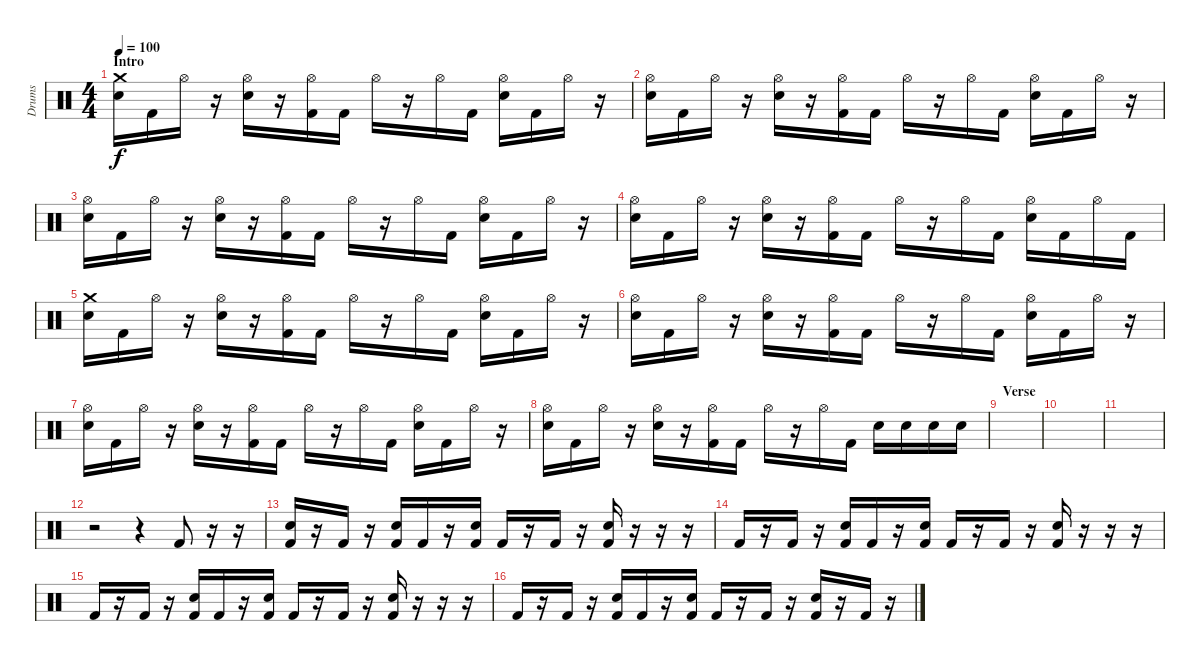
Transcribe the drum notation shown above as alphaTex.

\track ("Drums" "Drums") {instrument percussion}
\staff {score}
\articulation defaults
\ts (4 4)
\section ("" "Intro")
\tempo 100
\clef neutral
\ks c
("Crash medium (hit)" "Snare (hit) 2").16{dy f} "Kick (hit) 2".16 "Hi-Hat (open)".16 r.16 ("Hi-Hat (open)" "Snare (hit) 2").16 r.16 ("Hi-Hat (open)" "Kick (hit) 2").16 "Kick (hit) 2".16 "Hi-Hat (open)".16 r.16 "Hi-Hat (open)".16 "Kick (hit) 2".16 ("Hi-Hat (open)" "Snare (hit) 2").16 "Kick (hit) 2".16 "Hi-Hat (open)".16 r.16 |
("Hi-Hat (open)" "Snare (hit) 2").16 "Kick (hit) 2".16 "Hi-Hat (open)".16 r.16 ("Hi-Hat (open)" "Snare (hit) 2").16 r.16 ("Hi-Hat (open)" "Kick (hit) 2").16 "Kick (hit) 2".16 "Hi-Hat (open)".16 r.16 "Hi-Hat (open)".16 "Kick (hit) 2".16 ("Hi-Hat (open)" "Snare (hit) 2").16 "Kick (hit) 2".16 "Hi-Hat (open)".16 r.16 |
("Hi-Hat (open)" "Snare (hit) 2").16 "Kick (hit) 2".16 "Hi-Hat (open)".16 r.16 ("Hi-Hat (open)" "Snare (hit) 2").16 r.16 ("Hi-Hat (open)" "Kick (hit) 2").16 "Kick (hit) 2".16 "Hi-Hat (open)".16 r.16 "Hi-Hat (open)".16 "Kick (hit) 2".16 ("Hi-Hat (open)" "Snare (hit) 2").16 "Kick (hit) 2".16 "Hi-Hat (open)".16 r.16 |
("Hi-Hat (open)" "Snare (hit) 2").16 "Kick (hit) 2".16 "Hi-Hat (open)".16 r.16 ("Hi-Hat (open)" "Snare (hit) 2").16 r.16 ("Hi-Hat (open)" "Kick (hit) 2").16 "Kick (hit) 2".16 "Hi-Hat (open)".16 r.16 "Hi-Hat (open)".16 "Kick (hit) 2".16 ("Hi-Hat (open)" "Snare (hit) 2").16 "Kick (hit) 2".16 "Hi-Hat (open)".16 "Kick (hit) 2".16 |
("Crash medium (hit)" "Snare (hit) 2").16 "Kick (hit) 2".16 "Hi-Hat (open)".16 r.16 ("Hi-Hat (open)" "Snare (hit) 2").16 r.16 ("Hi-Hat (open)" "Kick (hit) 2").16 "Kick (hit) 2".16 "Hi-Hat (open)".16 r.16 "Hi-Hat (open)".16 "Kick (hit) 2".16 ("Hi-Hat (open)" "Snare (hit) 2").16 "Kick (hit) 2".16 "Hi-Hat (open)".16 r.16 |
("Hi-Hat (open)" "Snare (hit) 2").16 "Kick (hit) 2".16 "Hi-Hat (open)".16 r.16 ("Hi-Hat (open)" "Snare (hit) 2").16 r.16 ("Hi-Hat (open)" "Kick (hit) 2").16 "Kick (hit) 2".16 "Hi-Hat (open)".16 r.16 "Hi-Hat (open)".16 "Kick (hit) 2".16 ("Hi-Hat (open)" "Snare (hit) 2").16 "Kick (hit) 2".16 "Hi-Hat (open)".16 r.16 |
("Hi-Hat (open)" "Snare (hit) 2").16 "Kick (hit) 2".16 "Hi-Hat (open)".16 r.16 ("Hi-Hat (open)" "Snare (hit) 2").16 r.16 ("Hi-Hat (open)" "Kick (hit) 2").16 "Kick (hit) 2".16 "Hi-Hat (open)".16 r.16 "Hi-Hat (open)".16 "Kick (hit) 2".16 ("Hi-Hat (open)" "Snare (hit) 2").16 "Kick (hit) 2".16 "Hi-Hat (open)".16 r.16 |
("Hi-Hat (open)" "Snare (hit) 2").16 "Kick (hit) 2".16 "Hi-Hat (open)".16 r.16 ("Hi-Hat (open)" "Snare (hit) 2").16 r.16 ("Hi-Hat (open)" "Kick (hit) 2").16 "Kick (hit) 2".16 "Hi-Hat (open)".16 r.16 "Hi-Hat (open)".16 "Kick (hit) 2".16 "Snare (hit) 2".16 "Snare (hit) 2".16 "Snare (hit) 2".16 "Snare (hit) 2".16 |
\section ("" "Verse")
|
|
|
r.2 r.4 "Kick (hit) 2".8 r.16 r.16 |
("Snare (hit) 2" "Kick (hit) 2").16 r.16 "Kick (hit) 2".16 r.16 ("Snare (hit) 2" "Kick (hit) 2").16 "Kick (hit) 2".16 r.16 ("Snare (hit) 2" "Kick (hit) 2").16 "Kick (hit) 2".16 r.16 "Kick (hit) 2".16 r.16 ("Snare (hit) 2" "Kick (hit) 2").16 r.16 r.16 r.16 |
"Kick (hit) 2".16 r.16 "Kick (hit) 2".16 r.16 ("Snare (hit) 2" "Kick (hit) 2").16 "Kick (hit) 2".16 r.16 ("Snare (hit) 2" "Kick (hit) 2").16 "Kick (hit) 2".16 r.16 "Kick (hit) 2".16 r.16 ("Snare (hit) 2" "Kick (hit) 2").16 r.16 r.16 r.16 |
"Kick (hit) 2".16 r.16 "Kick (hit) 2".16 r.16 ("Snare (hit) 2" "Kick (hit) 2").16 "Kick (hit) 2".16 r.16 ("Snare (hit) 2" "Kick (hit) 2").16 "Kick (hit) 2".16 r.16 "Kick (hit) 2".16 r.16 ("Snare (hit) 2" "Kick (hit) 2").16 r.16 r.16 r.16 |
"Kick (hit) 2".16 r.16 "Kick (hit) 2".16 r.16 ("Snare (hit) 2" "Kick (hit) 2").16 "Kick (hit) 2".16 r.16 ("Snare (hit) 2" "Kick (hit) 2").16 "Kick (hit) 2".16 r.16 "Kick (hit) 2".16 r.16 ("Snare (hit) 2" "Kick (hit) 2").16 r.16 "Kick (hit) 2".16 r.16
